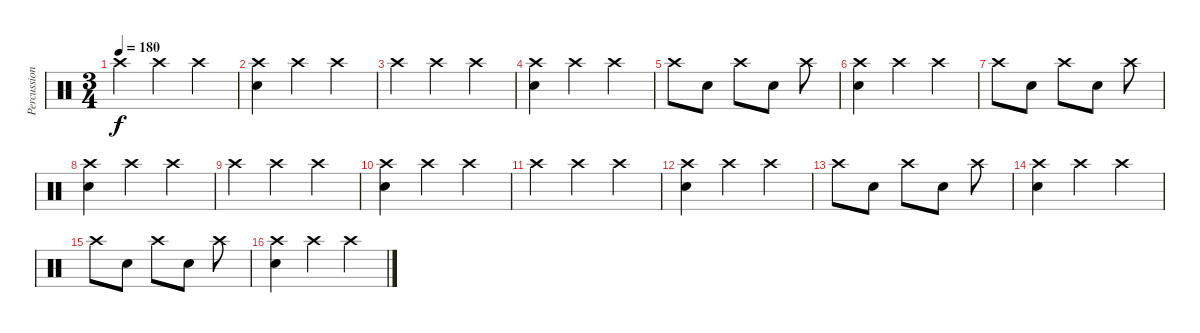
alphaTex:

\track ("Percussion" "Percussion") {instrument percussion}
\staff {score}
\articulation defaults
\ts (3 4)
\tempo 180
\clef neutral
\ks c "Crash high (hit)".4{dy f} "Crash high (hit)".4 "Crash high (hit)".4
|
("Crash high (hit)" "Snare (hit) 2").4 "Crash high (hit)".4 "Crash high (hit)".4 |
"Crash high (hit)".4 "Crash high (hit)".4 "Crash high (hit)".4 |
("Crash high (hit)" "Snare (hit) 2").4 "Crash high (hit)".4 "Crash high (hit)".4 |
"Crash high (hit)".8 "Snare (hit) 2".8 "Crash high (hit)".8 "Snare (hit) 2".8 "Crash high (hit)".8 |
("Crash high (hit)" "Snare (hit) 2").4 "Crash high (hit)".4 "Crash high (hit)".4 |
"Crash high (hit)".8 "Snare (hit) 2".8 "Crash high (hit)".8 "Snare (hit) 2".8 "Crash high (hit)".8 |
("Crash high (hit)" "Snare (hit) 2").4 "Crash high (hit)".4 "Crash high (hit)".4 |
"Crash high (hit)".4 "Crash high (hit)".4 "Crash high (hit)".4 |
("Crash high (hit)" "Snare (hit) 2").4 "Crash high (hit)".4 "Crash high (hit)".4 |
"Crash high (hit)".4 "Crash high (hit)".4 "Crash high (hit)".4 |
("Crash high (hit)" "Snare (hit) 2").4 "Crash high (hit)".4 "Crash high (hit)".4 |
"Crash high (hit)".8 "Snare (hit) 2".8 "Crash high (hit)".8 "Snare (hit) 2".8 "Crash high (hit)".8 |
("Crash high (hit)" "Snare (hit) 2").4 "Crash high (hit)".4 "Crash high (hit)".4 |
"Crash high (hit)".8 "Snare (hit) 2".8 "Crash high (hit)".8 "Snare (hit) 2".8 "Crash high (hit)".8 |
("Crash high (hit)" "Snare (hit) 2").4 "Crash high (hit)".4 "Crash high (hit)".4
